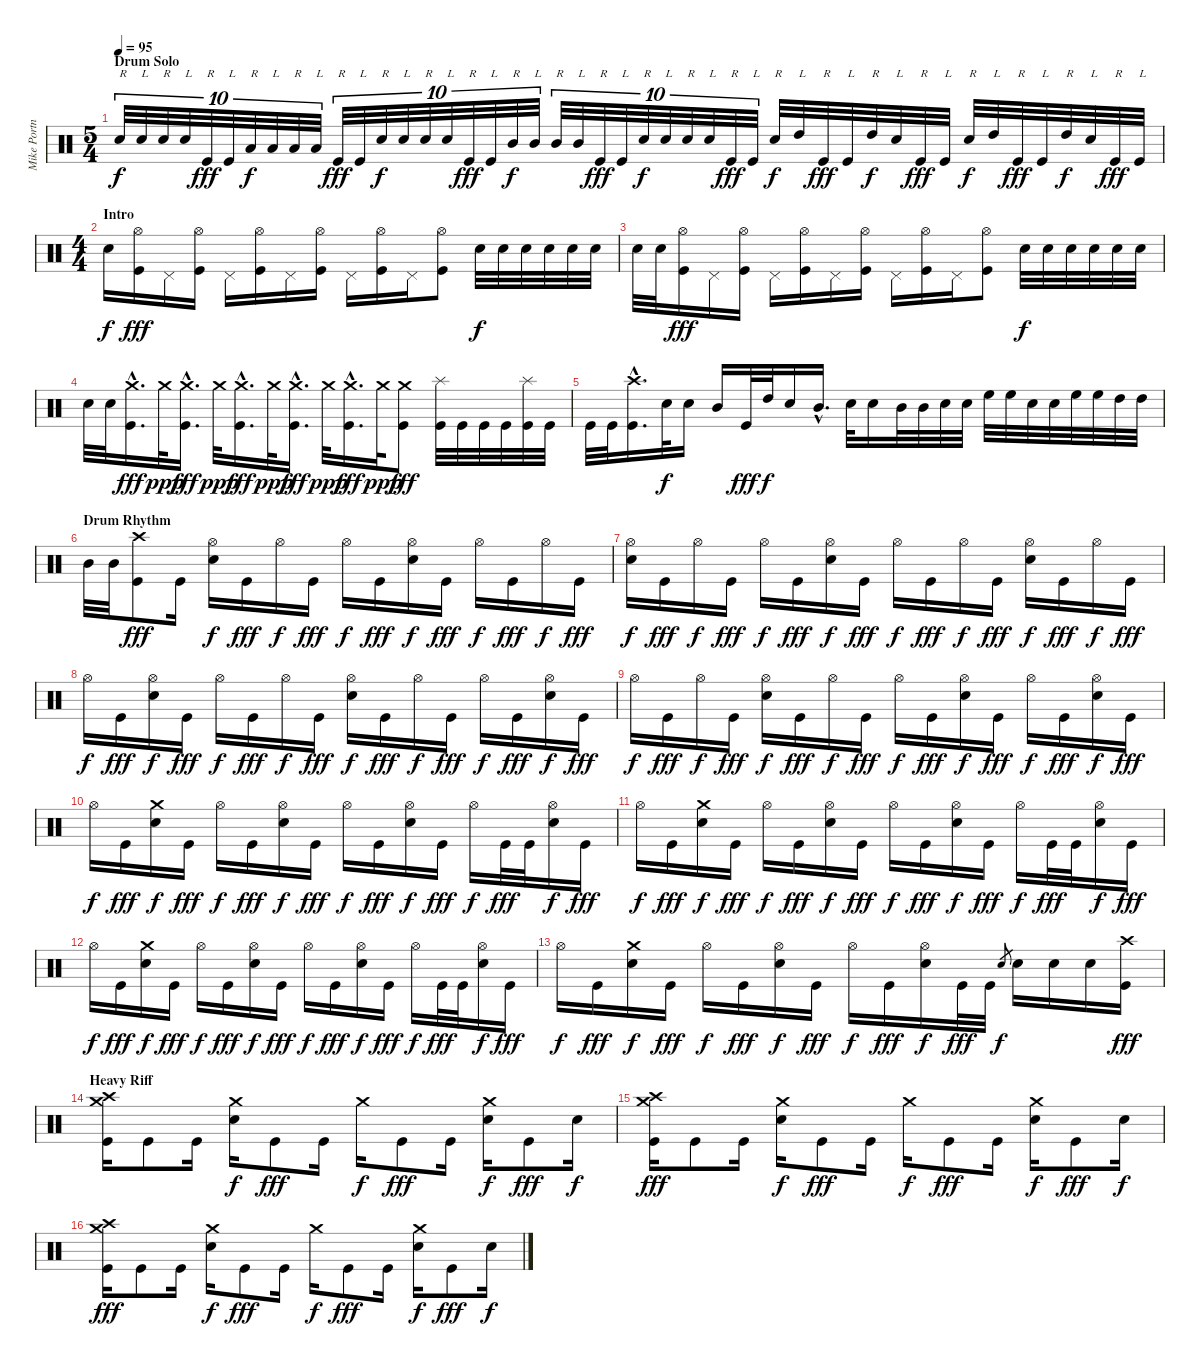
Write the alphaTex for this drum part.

\track ("Mike Portnoy" "Mike Portn") {instrument percussion}
\staff {score}
\articulation defaults
\ts (5 4)
\section ("" "Drum Solo")
\tempo 95
\clef neutral
\ks c "Electric Snare (hit)".32{tu (10 8) txt "R" dy f} "Electric Snare (hit)".32{tu (10 8) txt "L"} "Electric Snare (hit)".32{tu (10 8) txt "R"} "Electric Snare (hit)".32{tu (10 8) txt "L"} "Kick (hit)".32{tu (10 8) txt "R" dy fff} "Kick (hit)".32{tu (10 8) txt "L"} "Low Floor Tom (hit)".32{tu (10 8) txt "R" dy f} "Low Floor Tom (hit)".32{tu (10 8) txt "L"} "Low Floor Tom (hit)".32{tu (10 8) txt "R"} "Low Floor Tom (hit)".32{tu (10 8) txt "L"} "Kick (hit)".32{tu (10 8) txt "R" dy fff} "Kick (hit)".32{tu (10 8) txt "L"} "Electric Snare (hit)".32{tu (10 8) txt "R" dy f} "Electric Snare (hit)".32{tu (10 8) txt "L"} "Electric Snare (hit)".32{tu (10 8) txt "R"} "Electric Snare (hit)".32{tu (10 8) txt "L"} "Kick (hit)".32{tu (10 8) txt "R" dy fff} "Kick (hit)".32{tu (10 8) txt "L"} "Mid Tom (hit)".32{tu (10 8) txt "R" dy f} "Mid Tom (hit)".32{tu (10 8) txt "L"} "Mid Tom (hit)".32{tu (10 8) txt "R"} "Mid Tom (hit)".32{tu (10 8) txt "L"} "Kick (hit)".32{tu (10 8) txt "R" dy fff} "Kick (hit)".32{tu (10 8) txt "L"} "Electric Snare (hit)".32{tu (10 8) txt "R" dy f} "Electric Snare (hit)".32{tu (10 8) txt "L"} "Electric Snare (hit)".32{tu (10 8) txt "R"} "Electric Snare (hit)".32{tu (10 8) txt "L"} "Kick (hit)".32{tu (10 8) txt "R" dy fff} "Kick (hit)".32{tu (10 8) txt "L"} "Electric Snare (hit)".32{txt "R" dy f} "High Tom (hit)".32{txt "L"} "Kick (hit)".32{txt "R" dy fff} "Kick (hit)".32{txt "L"} "High Tom (hit)".32{txt "R" dy f} "Electric Snare (hit)".32{txt "L"} "Kick (hit)".32{txt "R" dy fff} "Kick (hit)".32{txt "L"} "Electric Snare (hit)".32{txt "R" dy f} "High Tom (hit)".32{txt "L"} "Kick (hit)".32{txt "R" dy fff} "Kick (hit)".32{txt "L"} "High Tom (hit)".32{txt "R" dy f} "Electric Snare (hit)".32{txt "L"} "Kick (hit)".32{txt "R" dy fff} "Kick (hit)".32{txt "L"}
|
\ts (4 4)
\section ("" "Intro")
"Electric Snare (hit)".16{dy f} ("Hi-Hat (open)" "Kick (hit)").16{dy fff} "Pedal Hi-Hat (hit)".16 ("Hi-Hat (open)" "Kick (hit)").16 "Pedal Hi-Hat (hit)".16 ("Hi-Hat (open)" "Kick (hit)").16 "Pedal Hi-Hat (hit)".16 ("Hi-Hat (open)" "Kick (hit)").16 "Pedal Hi-Hat (hit)".16 ("Hi-Hat (open)" "Kick (hit)").16 "Pedal Hi-Hat (hit)".16 ("Hi-Hat (open)" "Kick (hit)").8 "Electric Snare (hit)".32{dy f} "Electric Snare (hit)".32 "Electric Snare (hit)".32 "Electric Snare (hit)".32 "Electric Snare (hit)".32 "Electric Snare (hit)".32 |
"Electric Snare (hit)".32 "Electric Snare (hit)".32 ("Hi-Hat (open)" "Kick (hit)").16{dy fff} "Pedal Hi-Hat (hit)".16 ("Hi-Hat (open)" "Kick (hit)").16 "Pedal Hi-Hat (hit)".16 ("Hi-Hat (open)" "Kick (hit)").16 "Pedal Hi-Hat (hit)".16 ("Hi-Hat (open)" "Kick (hit)").16 "Pedal Hi-Hat (hit)".16 ("Hi-Hat (open)" "Kick (hit)").16 "Pedal Hi-Hat (hit)".16 ("Hi-Hat (open)" "Kick (hit)").8 "Electric Snare (hit)".32{dy f} "Electric Snare (hit)".32 "Electric Snare (hit)".32 "Electric Snare (hit)".32 "Electric Snare (hit)".32 "Electric Snare (hit)".32 |
"Electric Snare (hit)".32 "Electric Snare (hit)".32 ("Crash medium (hit)"{hac} "Kick (hit)"{hac}).16{d dy fff} "Crash medium (hit)".32{dy ppp} ("Crash medium (hit)"{hac} "Kick (hit)"{hac}).16{d dy fff} "Crash medium (hit)".32{dy ppp} ("Crash medium (hit)"{hac} "Kick (hit)"{hac}).16{d dy fff} "Crash medium (hit)".32{dy ppp} ("Crash medium (hit)"{hac} "Kick (hit)"{hac}).16{d dy fff} "Crash medium (hit)".32{dy ppp} ("Crash medium (hit)"{hac} "Kick (hit)"{hac}).16{d dy fff} "Crash medium (hit)".32{dy ppp} ("Crash medium (hit)" "Kick (hit)").8{dy fff} ("Splash (hit)" "Kick (hit)").32 "Kick (hit)".32 "Kick (hit)".32 "Kick (hit)".32 ("Splash (hit)" "Kick (hit)").32 "Kick (hit)".32 |
"Kick (hit)".32 "Kick (hit)".32 ("Crash high (hit)"{hac} "Kick (hit)"{hac}).16{d} "Electric Snare (hit)".32{dy f} "Electric Snare (hit)".16 "Mid Tom (hit)".16 "Kick (hit)".32{dy fff} "High Tom (hit)".32{dy f} "Electric Snare (hit)".16 "Mid Tom (hit)"{hac}.16{d} "Electric Snare (hit)".32 "Electric Snare (hit)".16 "Mid Tom (hit)".32 "Mid Tom (hit)".32 "Electric Snare (hit)".32 "Electric Snare (hit)".32 "High Floor Tom (hit)".32 "High Floor Tom (hit)".32 "Electric Snare (hit)".32 "Electric Snare (hit)".32 "High Floor Tom (hit)".32 "High Floor Tom (hit)".32 "High Tom (hit)".32 "High Tom (hit)".32 |
\section ("" "Drum Rhythm")
"Mid Tom (hit)".32 "Mid Tom (hit)".32 ("Crash high (hit)" "Kick (hit)").8{dy fff} "Kick (hit)".16 ("Hi-Hat (open)" "Electric Snare (hit)").16{dy f} "Kick (hit)".16{dy fff} "Hi-Hat (open)".16{dy f} "Kick (hit)".16{dy fff} "Hi-Hat (open)".16{dy f} "Kick (hit)".16{dy fff} ("Hi-Hat (open)" "Electric Snare (hit)").16{dy f} "Kick (hit)".16{dy fff} "Hi-Hat (open)".16{dy f} "Kick (hit)".16{dy fff} "Hi-Hat (open)".16{dy f} "Kick (hit)".16{dy fff} |
("Hi-Hat (open)" "Electric Snare (hit)").16{dy f} "Kick (hit)".16{dy fff} "Hi-Hat (open)".16{dy f} "Kick (hit)".16{dy fff} "Hi-Hat (open)".16{dy f} "Kick (hit)".16{dy fff} ("Hi-Hat (open)" "Electric Snare (hit)").16{dy f} "Kick (hit)".16{dy fff} "Hi-Hat (open)".16{dy f} "Kick (hit)".16{dy fff} "Hi-Hat (open)".16{dy f} "Kick (hit)".16{dy fff} ("Hi-Hat (open)" "Electric Snare (hit)").16{dy f} "Kick (hit)".16{dy fff} "Hi-Hat (open)".16{dy f} "Kick (hit)".16{dy fff} |
"Hi-Hat (open)".16{dy f} "Kick (hit)".16{dy fff} ("Hi-Hat (open)" "Electric Snare (hit)").16{dy f} "Kick (hit)".16{dy fff} "Hi-Hat (open)".16{dy f} "Kick (hit)".16{dy fff} "Hi-Hat (open)".16{dy f} "Kick (hit)".16{dy fff} ("Hi-Hat (open)" "Electric Snare (hit)").16{dy f} "Kick (hit)".16{dy fff} "Hi-Hat (open)".16{dy f} "Kick (hit)".16{dy fff} "Hi-Hat (open)".16{dy f} "Kick (hit)".16{dy fff} ("Hi-Hat (open)" "Electric Snare (hit)").16{dy f} "Kick (hit)".16{dy fff} |
"Hi-Hat (open)".16{dy f} "Kick (hit)".16{dy fff} "Hi-Hat (open)".16{dy f} "Kick (hit)".16{dy fff} ("Hi-Hat (open)" "Electric Snare (hit)").16{dy f} "Kick (hit)".16{dy fff} "Hi-Hat (open)".16{dy f} "Kick (hit)".16{dy fff} "Hi-Hat (open)".16{dy f} "Kick (hit)".16{dy fff} ("Hi-Hat (open)" "Electric Snare (hit)").16{dy f} "Kick (hit)".16{dy fff} "Hi-Hat (open)".16{dy f} "Kick (hit)".16{dy fff} ("Hi-Hat (open)" "Electric Snare (hit)").16{dy f} "Kick (hit)".16{dy fff} |
"Hi-Hat (open)".16{dy f} "Kick (hit)".16{dy fff} ("Crash medium (hit)" "Electric Snare (hit)").16{dy f} "Kick (hit)".16{dy fff} "Hi-Hat (open)".16{dy f} "Kick (hit)".16{dy fff} ("Hi-Hat (open)" "Electric Snare (hit)").16{dy f} "Kick (hit)".16{dy fff} "Hi-Hat (open)".16{dy f} "Kick (hit)".16{dy fff} ("Hi-Hat (open)" "Electric Snare (hit)").16{dy f} "Kick (hit)".16{dy fff} "Hi-Hat (open)".16{dy f} "Kick (hit)".32{dy fff} "Kick (hit)".32 ("Hi-Hat (open)" "Electric Snare (hit)").16{dy f} "Kick (hit)".16{dy fff} |
"Hi-Hat (open)".16{dy f} "Kick (hit)".16{dy fff} ("Crash medium (hit)" "Electric Snare (hit)").16{dy f} "Kick (hit)".16{dy fff} "Hi-Hat (open)".16{dy f} "Kick (hit)".16{dy fff} ("Hi-Hat (open)" "Electric Snare (hit)").16{dy f} "Kick (hit)".16{dy fff} "Hi-Hat (open)".16{dy f} "Kick (hit)".16{dy fff} ("Hi-Hat (open)" "Electric Snare (hit)").16{dy f} "Kick (hit)".16{dy fff} "Hi-Hat (open)".16{dy f} "Kick (hit)".32{dy fff} "Kick (hit)".32 ("Hi-Hat (open)" "Electric Snare (hit)").16{dy f} "Kick (hit)".16{dy fff} |
"Hi-Hat (open)".16{dy f} "Kick (hit)".16{dy fff} ("Crash medium (hit)" "Electric Snare (hit)").16{dy f} "Kick (hit)".16{dy fff} "Hi-Hat (open)".16{dy f} "Kick (hit)".16{dy fff} ("Hi-Hat (open)" "Electric Snare (hit)").16{dy f} "Kick (hit)".16{dy fff} "Hi-Hat (open)".16{dy f} "Kick (hit)".16{dy fff} ("Hi-Hat (open)" "Electric Snare (hit)").16{dy f} "Kick (hit)".16{dy fff} "Hi-Hat (open)".16{dy f} "Kick (hit)".32{dy fff} "Kick (hit)".32 ("Hi-Hat (open)" "Electric Snare (hit)").16{dy f} "Kick (hit)".16{dy fff} |
"Hi-Hat (open)".16{dy f} "Kick (hit)".16{dy fff} ("Crash medium (hit)" "Electric Snare (hit)").16{dy f} "Kick (hit)".16{dy fff} "Hi-Hat (open)".16{dy f} "Kick (hit)".16{dy fff} ("Hi-Hat (open)" "Electric Snare (hit)").16{dy f} "Kick (hit)".16{dy fff} "Hi-Hat (open)".16{dy f} "Kick (hit)".16{dy fff} ("Hi-Hat (open)" "Electric Snare (hit)").16{dy f} "Kick (hit)".32{dy fff} "Kick (hit)".32 "Electric Snare (hit)".8{gr dy f} "Electric Snare (hit)".16 "Electric Snare (hit)".16 "Electric Snare (hit)".16 ("Crash high (hit)" "Kick (hit)").16{dy fff} |
\section ("" "Heavy Riff")
("Crash high (hit)" "Crash medium (hit)" "Kick (hit)").16 "Kick (hit)".8 "Kick (hit)".16 ("Crash medium (hit)" "Electric Snare (hit)").16{dy f} "Kick (hit)".8{dy fff} "Kick (hit)".16 "Crash medium (hit)".16{dy f} "Kick (hit)".8{dy fff} "Kick (hit)".16 ("Crash medium (hit)" "Electric Snare (hit)").16{dy f} "Kick (hit)".8{dy fff} "Electric Snare (hit)".16{dy f} |
("Crash high (hit)" "Crash medium (hit)" "Kick (hit)").16{dy fff} "Kick (hit)".8 "Kick (hit)".16 ("Crash medium (hit)" "Electric Snare (hit)").16{dy f} "Kick (hit)".8{dy fff} "Kick (hit)".16 "Crash medium (hit)".16{dy f} "Kick (hit)".8{dy fff} "Kick (hit)".16 ("Crash medium (hit)" "Electric Snare (hit)").16{dy f} "Kick (hit)".8{dy fff} "Electric Snare (hit)".16{dy f} |
("Crash high (hit)" "Crash medium (hit)" "Kick (hit)").16{dy fff} "Kick (hit)".8 "Kick (hit)".16 ("Crash medium (hit)" "Electric Snare (hit)").16{dy f} "Kick (hit)".8{dy fff} "Kick (hit)".16 "Crash medium (hit)".16{dy f} "Kick (hit)".8{dy fff} "Kick (hit)".16 ("Crash medium (hit)" "Electric Snare (hit)").16{dy f} "Kick (hit)".8{dy fff} "Electric Snare (hit)".16{dy f}
